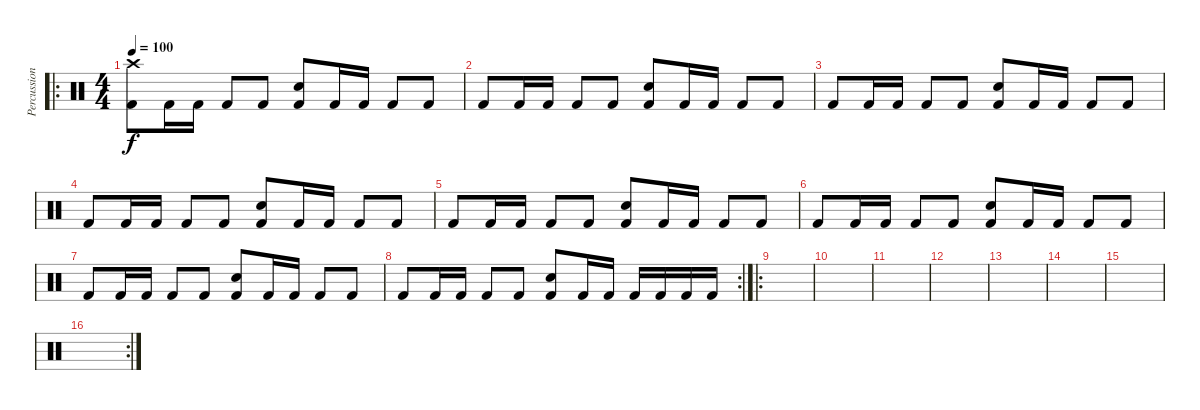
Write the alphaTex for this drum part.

\track ("Percussions" "Percussion") {instrument percussion}
\staff {score}
\articulation defaults
\ro
\ts (4 4)
\tempo 100
\clef neutral
\ks c
("Crash high (hit)" "Kick (hit) 2").8{dy f} "Kick (hit) 2".16 "Kick (hit) 2".16 "Kick (hit) 2".8 "Kick (hit) 2".8 ("Snare (hit) 2" "Kick (hit) 2").8 "Kick (hit) 2".16 "Kick (hit) 2".16 "Kick (hit) 2".8 "Kick (hit) 2".8 |
"Kick (hit) 2".8 "Kick (hit) 2".16 "Kick (hit) 2".16 "Kick (hit) 2".8 "Kick (hit) 2".8 ("Snare (hit) 2" "Kick (hit) 2").8 "Kick (hit) 2".16 "Kick (hit) 2".16 "Kick (hit) 2".8 "Kick (hit) 2".8 |
"Kick (hit) 2".8 "Kick (hit) 2".16 "Kick (hit) 2".16 "Kick (hit) 2".8 "Kick (hit) 2".8 ("Snare (hit) 2" "Kick (hit) 2").8 "Kick (hit) 2".16 "Kick (hit) 2".16 "Kick (hit) 2".8 "Kick (hit) 2".8 |
"Kick (hit) 2".8 "Kick (hit) 2".16 "Kick (hit) 2".16 "Kick (hit) 2".8 "Kick (hit) 2".8 ("Snare (hit) 2" "Kick (hit) 2").8 "Kick (hit) 2".16 "Kick (hit) 2".16 "Kick (hit) 2".8 "Kick (hit) 2".8 |
"Kick (hit) 2".8 "Kick (hit) 2".16 "Kick (hit) 2".16 "Kick (hit) 2".8 "Kick (hit) 2".8 ("Snare (hit) 2" "Kick (hit) 2").8 "Kick (hit) 2".16 "Kick (hit) 2".16 "Kick (hit) 2".8 "Kick (hit) 2".8 |
"Kick (hit) 2".8 "Kick (hit) 2".16 "Kick (hit) 2".16 "Kick (hit) 2".8 "Kick (hit) 2".8 ("Snare (hit) 2" "Kick (hit) 2").8 "Kick (hit) 2".16 "Kick (hit) 2".16 "Kick (hit) 2".8 "Kick (hit) 2".8 |
"Kick (hit) 2".8 "Kick (hit) 2".16 "Kick (hit) 2".16 "Kick (hit) 2".8 "Kick (hit) 2".8 ("Snare (hit) 2" "Kick (hit) 2").8 "Kick (hit) 2".16 "Kick (hit) 2".16 "Kick (hit) 2".8 "Kick (hit) 2".8 |
\rc 2 "Kick (hit) 2".8 "Kick (hit) 2".16 "Kick (hit) 2".16 "Kick (hit) 2".8 "Kick (hit) 2".8
("Snare (hit) 2" "Kick (hit) 2").8 "Kick (hit) 2".16 "Kick (hit) 2".16 "Kick (hit) 2".16 "Kick (hit) 2".16 "Kick (hit) 2".16 "Kick (hit) 2".16 |
\ro
|
|
|
|
|
|
|
\rc 2
